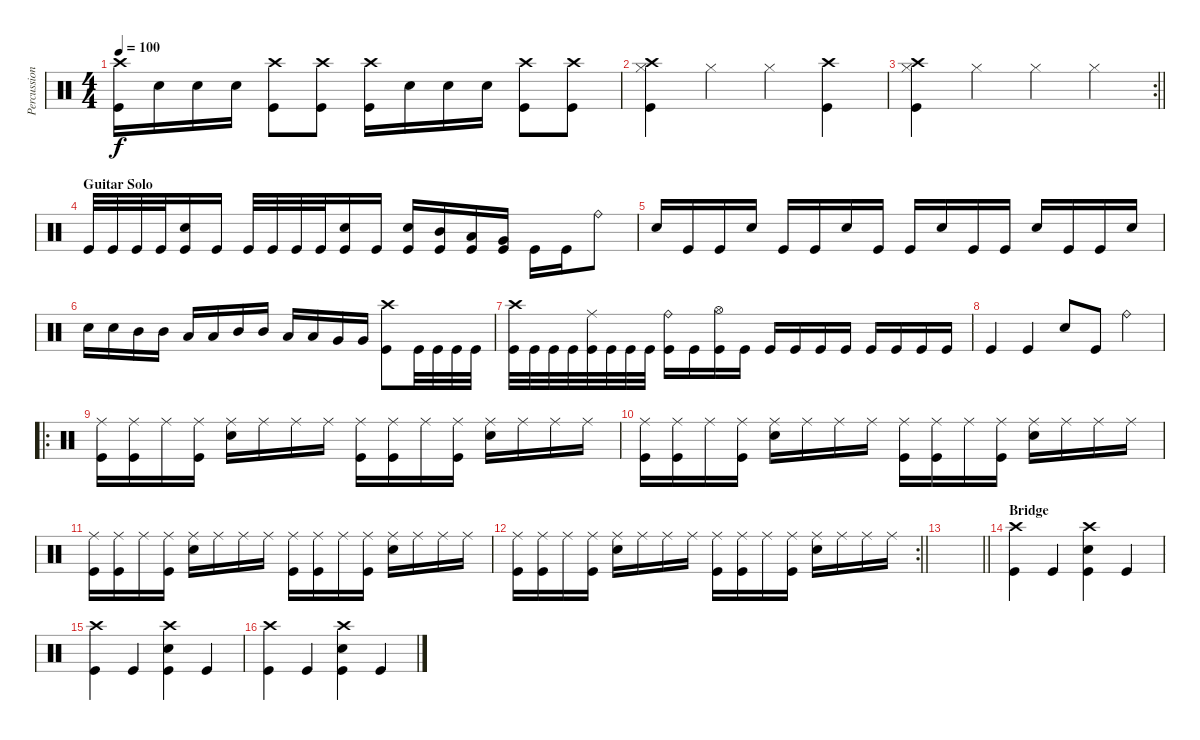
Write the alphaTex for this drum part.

\track ("Percussion" "Percussion") {instrument percussion}
\staff {score}
\articulation defaults
\ts (4 4)
\tempo 100
\clef neutral
\ks c
("Crash high (hit)" "Kick (hit)").16{dy f} "Electric Snare (hit)".16 "Electric Snare (hit)".16 "Electric Snare (hit)".16 ("Crash high (hit)" "Kick (hit)").8 ("Crash high (hit)" "Kick (hit)").8 ("Crash high (hit)" "Kick (hit)").16 "Electric Snare (hit)".16 "Electric Snare (hit)".16 "Electric Snare (hit)".16 ("Crash high (hit)" "Kick (hit)").8 ("Crash high (hit)" "Kick (hit)").8 |
("Crash high (hit)" "Hi-Hat (closed)" "Kick (hit)").4 "Hi-Hat (closed)".4 "Hi-Hat (closed)".4 ("Crash high (hit)" "Kick (hit)").4 |
\rc 2
\barLineRight lightlight
("Crash high (hit)" "Hi-Hat (closed)" "Kick (hit)").4 "Hi-Hat (closed)".4 "Hi-Hat (closed)".4 "Hi-Hat (closed)".4 |
\section ("" "Guitar Solo")
"Kick (hit)".32 "Kick (hit)".32 "Kick (hit)".32 "Kick (hit)".32 ("Electric Snare (hit)" "Kick (hit)").16 "Kick (hit)".16 "Kick (hit)".32 "Kick (hit)".32 "Kick (hit)".32 "Kick (hit)".32 ("Electric Snare (hit)" "Kick (hit)").16 "Kick (hit)".16 ("Electric Snare (hit)" "Kick (hit)").16 ("Mid Tom (hit)" "Kick (hit)").16 ("Low Tom (hit)" "Kick (hit)").16 ("Very Low Tom (hit)" "Kick (hit)").16 "Kick (hit)".16 "Kick (hit)".16 "Ride (bell)".8 |
"Electric Snare (hit)".16 "Kick (hit)".16 "Kick (hit)".16 "Electric Snare (hit)".16 "Kick (hit)".16 "Kick (hit)".16 "Electric Snare (hit)".16 "Kick (hit)".16 "Kick (hit)".16 "Electric Snare (hit)".16 "Kick (hit)".16 "Kick (hit)".16 "Electric Snare (hit)".16 "Kick (hit)".16 "Kick (hit)".16 "Electric Snare (hit)".16 |
"Electric Snare (hit)".16 "Electric Snare (hit)".16 "Mid Tom (hit)".16 "Mid Tom (hit)".16 "Low Tom (hit)".16 "Low Tom (hit)".16 "Mid Tom (hit)".16 "Mid Tom (hit)".16 "Low Tom (hit)".16 "Low Tom (hit)".16 "Very Low Tom (hit)".16 "Very Low Tom (hit)".16 ("Crash high (hit)" "Kick (hit)").8 "Kick (hit)".32 "Kick (hit)".32 "Kick (hit)".32 "Kick (hit)".32 |
("Crash high (hit)" "Kick (hit)").32 "Kick (hit)".32 "Kick (hit)".32 "Kick (hit)".32 ("Ride (middle)" "Kick (hit)").32 "Kick (hit)".32 "Kick (hit)".32 "Kick (hit)".32 ("Ride (bell)" "Kick (hit)").16 "Kick (hit)".16 ("Hi-Hat (open)" "Kick (hit)").16 "Kick (hit)".16 "Kick (hit)".16 "Kick (hit)".16 "Kick (hit)".16 "Kick (hit)".16 "Kick (hit)".16 "Kick (hit)".16 "Kick (hit)".16 "Kick (hit)".16 |
"Kick (hit)".4 "Kick (hit)".4 "Electric Snare (hit)".8 "Kick (hit)".8 "Ride (bell)".4 |
\ro
("Ride (middle)" "Kick (hit)").16 ("Ride (middle)" "Kick (hit)").16 "Ride (middle)".16 ("Ride (middle)" "Kick (hit)").16 ("Ride (middle)" "Electric Snare (hit)").16 "Ride (middle)".16 "Ride (middle)".16 "Ride (middle)".16 ("Ride (middle)" "Kick (hit)").16 ("Ride (middle)" "Kick (hit)").16 "Ride (middle)".16 ("Ride (middle)" "Kick (hit)").16 ("Ride (middle)" "Electric Snare (hit)").16 "Ride (middle)".16 "Ride (middle)".16 "Ride (middle)".16 |
("Ride (middle)" "Kick (hit)").16 ("Ride (middle)" "Kick (hit)").16 "Ride (middle)".16 ("Ride (middle)" "Kick (hit)").16 ("Ride (middle)" "Electric Snare (hit)").16 "Ride (middle)".16 "Ride (middle)".16 "Ride (middle)".16 ("Ride (middle)" "Kick (hit)").16 ("Ride (middle)" "Kick (hit)").16 "Ride (middle)".16 ("Ride (middle)" "Kick (hit)").16 ("Ride (middle)" "Electric Snare (hit)").16 "Ride (middle)".16 "Ride (middle)".16 "Ride (middle)".16 |
("Ride (middle)" "Kick (hit)").16 ("Ride (middle)" "Kick (hit)").16 "Ride (middle)".16 ("Ride (middle)" "Kick (hit)").16 ("Ride (middle)" "Electric Snare (hit)").16 "Ride (middle)".16 "Ride (middle)".16 "Ride (middle)".16 ("Ride (middle)" "Kick (hit)").16 ("Ride (middle)" "Kick (hit)").16 "Ride (middle)".16 ("Ride (middle)" "Kick (hit)").16 ("Ride (middle)" "Electric Snare (hit)").16 "Ride (middle)".16 "Ride (middle)".16 "Ride (middle)".16 |
\rc 2
\barLineRight lightlight
("Ride (middle)" "Kick (hit)").16 ("Ride (middle)" "Kick (hit)").16 "Ride (middle)".16 ("Ride (middle)" "Kick (hit)").16 ("Ride (middle)" "Electric Snare (hit)").16 "Ride (middle)".16 "Ride (middle)".16 "Ride (middle)".16 ("Ride (middle)" "Kick (hit)").16 ("Ride (middle)" "Kick (hit)").16 "Ride (middle)".16 ("Ride (middle)" "Kick (hit)").16 ("Ride (middle)" "Electric Snare (hit)").16 "Ride (middle)".16 "Ride (middle)".16 "Ride (middle)".16 |
\barLineRight lightlight
|
\section ("" "Bridge")
("Crash high (hit)" "Kick (hit)").4 "Kick (hit)".4 ("Crash high (hit)" "Electric Snare (hit)" "Kick (hit)").4 "Kick (hit)".4 |
("Crash high (hit)" "Kick (hit)").4 "Kick (hit)".4 ("Crash high (hit)" "Electric Snare (hit)" "Kick (hit)").4 "Kick (hit)".4 |
("Crash high (hit)" "Kick (hit)").4 "Kick (hit)".4 ("Crash high (hit)" "Electric Snare (hit)" "Kick (hit)").4 "Kick (hit)".4
